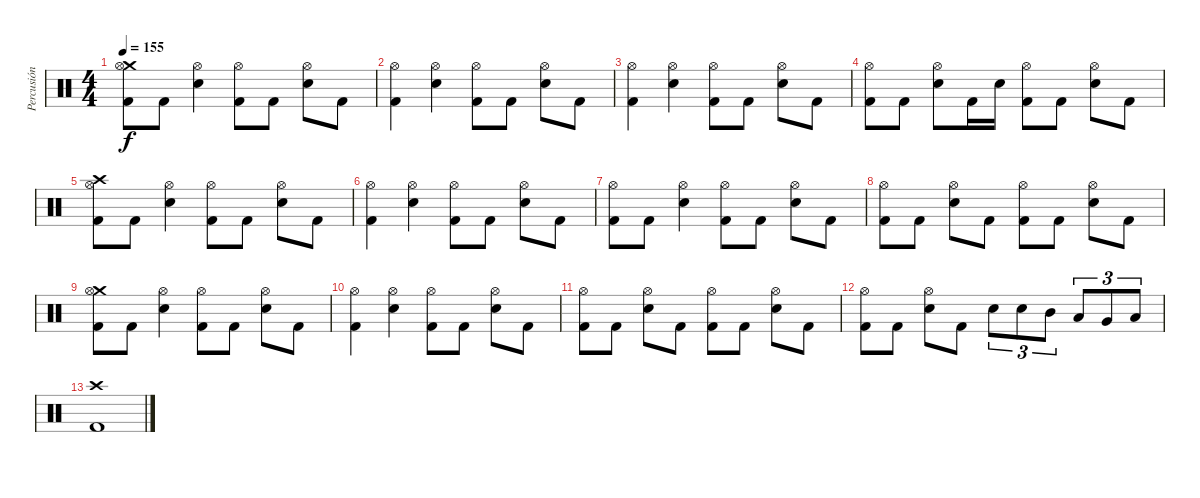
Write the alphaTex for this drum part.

\track ("Percusión" "Percusión") {instrument percussion}
\staff {score}
\articulation defaults
\ts (4 4)
\tempo 155
\clef neutral
\ks c
("Crash medium (hit)" "Hi-Hat (open)" "Kick (hit) 2").8{dy f} "Kick (hit) 2".8 ("Hi-Hat (open)" "Snare (hit) 2").4 ("Hi-Hat (open)" "Kick (hit) 2").8 "Kick (hit) 2".8 ("Hi-Hat (open)" "Snare (hit) 2").8 "Kick (hit) 2".8 |
("Hi-Hat (open)" "Kick (hit) 2").4 ("Hi-Hat (open)" "Snare (hit) 2").4 ("Hi-Hat (open)" "Kick (hit) 2").8 "Kick (hit) 2".8 ("Hi-Hat (open)" "Snare (hit) 2").8 "Kick (hit) 2".8 |
("Hi-Hat (open)" "Kick (hit) 2").4 ("Hi-Hat (open)" "Snare (hit) 2").4 ("Hi-Hat (open)" "Kick (hit) 2").8 "Kick (hit) 2".8 ("Hi-Hat (open)" "Snare (hit) 2").8 "Kick (hit) 2".8 |
("Hi-Hat (open)" "Kick (hit) 2").8 "Kick (hit) 2".8 ("Hi-Hat (open)" "Snare (hit) 2").8 "Kick (hit) 2".16 "Snare (hit) 2".16 ("Hi-Hat (open)" "Kick (hit) 2").8 "Kick (hit) 2".8 ("Hi-Hat (open)" "Snare (hit) 2").8 "Kick (hit) 2".8 |
("Crash high (hit)" "Hi-Hat (open)" "Kick (hit) 2").8 "Kick (hit) 2".8 ("Hi-Hat (open)" "Snare (hit) 2").4 ("Hi-Hat (open)" "Kick (hit) 2").8 "Kick (hit) 2".8 ("Hi-Hat (open)" "Snare (hit) 2").8 "Kick (hit) 2".8 |
("Hi-Hat (open)" "Kick (hit) 2").4 ("Hi-Hat (open)" "Snare (hit) 2").4 ("Hi-Hat (open)" "Kick (hit) 2").8 "Kick (hit) 2".8 ("Hi-Hat (open)" "Snare (hit) 2").8 "Kick (hit) 2".8 |
("Hi-Hat (open)" "Kick (hit) 2").8 "Kick (hit) 2".8 ("Hi-Hat (open)" "Snare (hit) 2").4 ("Hi-Hat (open)" "Kick (hit) 2").8 "Kick (hit) 2".8 ("Hi-Hat (open)" "Snare (hit) 2").8 "Kick (hit) 2".8 |
("Hi-Hat (open)" "Kick (hit) 2").8 "Kick (hit) 2".8 ("Hi-Hat (open)" "Snare (hit) 2").8 "Kick (hit) 2".8 ("Hi-Hat (open)" "Kick (hit) 2").8 "Kick (hit) 2".8 ("Hi-Hat (open)" "Snare (hit) 2").8 "Kick (hit) 2".8 |
("Crash medium (hit)" "Hi-Hat (open)" "Kick (hit) 2").8 "Kick (hit) 2".8 ("Hi-Hat (open)" "Snare (hit) 2").4 ("Hi-Hat (open)" "Kick (hit) 2").8 "Kick (hit) 2".8 ("Hi-Hat (open)" "Snare (hit) 2").8 "Kick (hit) 2".8 |
("Hi-Hat (open)" "Kick (hit) 2").4 ("Hi-Hat (open)" "Snare (hit) 2").4 ("Hi-Hat (open)" "Kick (hit) 2").8 "Kick (hit) 2".8 ("Hi-Hat (open)" "Snare (hit) 2").8 "Kick (hit) 2".8 |
("Hi-Hat (open)" "Kick (hit) 2").8 "Kick (hit) 2".8 ("Hi-Hat (open)" "Snare (hit) 2").8 "Kick (hit) 2".8 ("Hi-Hat (open)" "Kick (hit) 2").8 "Kick (hit) 2".8 ("Hi-Hat (open)" "Snare (hit) 2").8 "Kick (hit) 2".8 |
("Hi-Hat (open)" "Kick (hit) 2").8 "Kick (hit) 2".8 ("Hi-Hat (open)" "Snare (hit) 2").8 "Kick (hit) 2".8 "Snare (hit) 2".8{tu (3 2)} "Snare (hit) 2".8{tu (3 2)} "Mid Tom (hit)".8{tu (3 2)} "Low Tom (hit)".8{tu (3 2)} "Very Low Tom (hit)".8{tu (3 2)} "Low Floor Tom (hit)".8{tu (3 2)} |
("Crash high (hit)" "Kick (hit) 2").1
